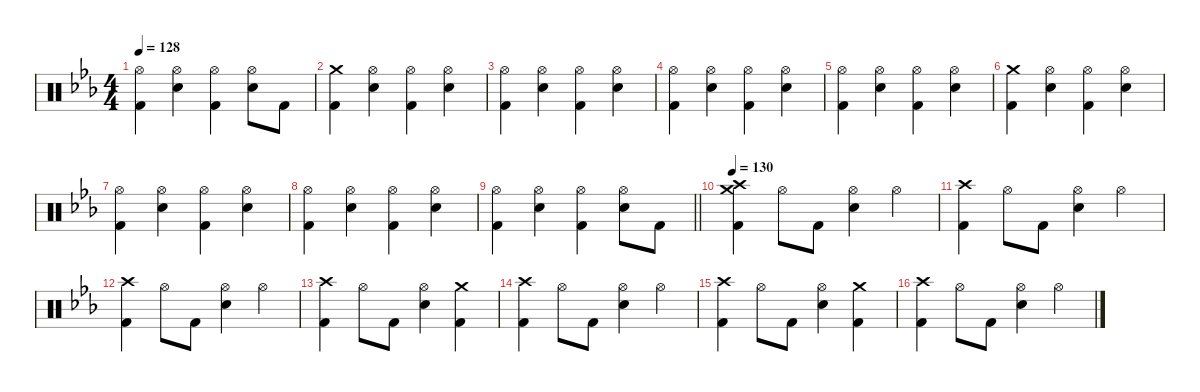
\defaultSystemsLayout 4
\hideDynamics
\bracketExtendMode nobrackets
\singleTrackTrackNamePolicy hidden
\multiTrackTrackNamePolicy hidden
\firstSystemTrackNameMode fullname
\otherSystemsTrackNameOrientation horizontal
\track ("Drums" "drm.") {instrument percussion}
\staff {score}
\articulation defaults
\ts (4 4)
\tempo 128
\clef neutral
\ks cminor
("Hi-Hat (open)"{acc forcenatural} "Kick (hit) 2"{acc forcenatural}).4{dy mp beam Down} ("Hi-Hat (open)"{acc forcenatural} "Snare (hit) 2"{acc forcenatural}).4{beam Down} ("Hi-Hat (open)"{acc forcenatural} "Kick (hit) 2"{acc forcenatural}).4{beam Down} ("Hi-Hat (open)"{acc forcenatural} "Snare (hit) 2"{acc forcenatural}).8{beam Down} "Kick (hit) 2"{acc forcenatural}.8{dy f beam Down} |
("Crash medium (hit)"{acc forcenatural} "Kick (hit) 2"{acc forcenatural}).4{beam Down} ("Hi-Hat (open)"{acc forcenatural} "Snare (hit) 2"{acc forcenatural}).4{dy mp beam Down} ("Hi-Hat (open)"{acc forcenatural} "Kick (hit) 2"{acc forcenatural}).4{beam Down} ("Hi-Hat (open)"{acc forcenatural} "Snare (hit) 2"{acc forcenatural}).4{beam Down} |
("Hi-Hat (open)"{acc forcenatural} "Kick (hit) 2"{acc forcenatural}).4{beam Down} ("Hi-Hat (open)"{acc forcenatural} "Snare (hit) 2"{acc forcenatural}).4{beam Down} ("Hi-Hat (open)"{acc forcenatural} "Kick (hit) 2"{acc forcenatural}).4{beam Down} ("Hi-Hat (open)"{acc forcenatural} "Snare (hit) 2"{acc forcenatural}).4{beam Down} |
("Hi-Hat (open)"{acc forcenatural} "Kick (hit) 2"{acc forcenatural}).4{beam Down} ("Hi-Hat (open)"{acc forcenatural} "Snare (hit) 2"{acc forcenatural}).4{beam Down} ("Hi-Hat (open)"{acc forcenatural} "Kick (hit) 2"{acc forcenatural}).4{beam Down} ("Hi-Hat (open)"{acc forcenatural} "Snare (hit) 2"{acc forcenatural}).4{beam Down} |
("Hi-Hat (open)"{acc forcenatural} "Kick (hit) 2"{acc forcenatural}).4{beam Down} ("Hi-Hat (open)"{acc forcenatural} "Snare (hit) 2"{acc forcenatural}).4{beam Down} ("Hi-Hat (open)"{acc forcenatural} "Kick (hit) 2"{acc forcenatural}).4{beam Down} ("Hi-Hat (open)"{acc forcenatural} "Snare (hit) 2"{acc forcenatural}).4{beam Down} |
("Crash medium (hit)"{acc forcenatural} "Kick (hit) 2"{acc forcenatural}).4{dy f beam Down} ("Hi-Hat (open)"{acc forcenatural} "Snare (hit) 2"{acc forcenatural}).4{dy mp beam Down} ("Hi-Hat (open)"{acc forcenatural} "Kick (hit) 2"{acc forcenatural}).4{beam Down} ("Hi-Hat (open)"{acc forcenatural} "Snare (hit) 2"{acc forcenatural}).4{beam Down} |
("Hi-Hat (open)"{acc forcenatural} "Kick (hit) 2"{acc forcenatural}).4{beam Down} ("Hi-Hat (open)"{acc forcenatural} "Snare (hit) 2"{acc forcenatural}).4{beam Down} ("Hi-Hat (open)"{acc forcenatural} "Kick (hit) 2"{acc forcenatural}).4{beam Down} ("Hi-Hat (open)"{acc forcenatural} "Snare (hit) 2"{acc forcenatural}).4{beam Down} |
("Hi-Hat (open)"{acc forcenatural} "Kick (hit) 2"{acc forcenatural}).4{beam Down} ("Hi-Hat (open)"{acc forcenatural} "Snare (hit) 2"{acc forcenatural}).4{beam Down} ("Hi-Hat (open)"{acc forcenatural} "Kick (hit) 2"{acc forcenatural}).4{beam Down} ("Hi-Hat (open)"{acc forcenatural} "Snare (hit) 2"{acc forcenatural}).4{beam Down} |
\barLineRight lightlight
("Hi-Hat (open)"{acc forcenatural} "Kick (hit) 2"{acc forcenatural}).4{beam Down} ("Hi-Hat (open)"{acc forcenatural} "Snare (hit) 2"{acc forcenatural}).4{beam Down} ("Hi-Hat (open)"{acc forcenatural} "Kick (hit) 2"{acc forcenatural}).4{beam Down} ("Hi-Hat (open)"{acc forcenatural} "Snare (hit) 2"{acc forcenatural}).8{beam Down} "Kick (hit) 2"{acc forcenatural}.8{dy f beam Down} |
\tempo 130
("Crash medium (hit)"{acc forcenatural} "Crash high (hit)"{acc forcenatural} "Kick (hit) 2"{acc forcenatural}).4{beam Down} "Hi-Hat (open)"{acc forcenatural}.8{dy mp beam Down} "Kick (hit) 2"{acc forcenatural}.8{dy f beam Down} ("Hi-Hat (open)"{acc forcenatural} "Snare (hit) 2"{acc forcenatural}).4{dy mp beam Down} "Hi-Hat (open)"{acc forcenatural}.4{beam Down} |
("Crash high (hit)"{acc forcenatural} "Kick (hit) 2"{acc forcenatural}).4{beam Down} "Hi-Hat (open)"{acc forcenatural}.8{beam Down} "Kick (hit) 2"{acc forcenatural}.8{dy f beam Down} ("Hi-Hat (open)"{acc forcenatural} "Snare (hit) 2"{acc forcenatural}).4{dy mp beam Down} "Hi-Hat (open)"{acc forcenatural}.4{beam Down} |
("Crash high (hit)"{acc forcenatural} "Kick (hit) 2"{acc forcenatural}).4{beam Down} "Hi-Hat (open)"{acc forcenatural}.8{beam Down} "Kick (hit) 2"{acc forcenatural}.8{dy f beam Down} ("Hi-Hat (open)"{acc forcenatural} "Snare (hit) 2"{acc forcenatural}).4{dy mp beam Down} "Hi-Hat (open)"{acc forcenatural}.4{beam Down} |
("Crash high (hit)"{acc forcenatural} "Kick (hit) 2"{acc forcenatural}).4{beam Down} "Hi-Hat (open)"{acc forcenatural}.8{beam Down} "Kick (hit) 2"{acc forcenatural}.8{dy f beam Down} ("Hi-Hat (open)"{acc forcenatural} "Snare (hit) 2"{acc forcenatural}).4{dy mp beam Down} ("Crash medium (hit)"{acc forcenatural} "Kick (hit) 2"{acc forcenatural}).4{beam Down} |
("Crash high (hit)"{acc forcenatural} "Kick (hit) 2"{acc forcenatural}).4{beam Down} "Hi-Hat (open)"{acc forcenatural}.8{beam Down} "Kick (hit) 2"{acc forcenatural}.8{dy f beam Down} ("Hi-Hat (open)"{acc forcenatural} "Snare (hit) 2"{acc forcenatural}).4{dy mp beam Down} "Hi-Hat (open)"{acc forcenatural}.4{beam Down} |
("Crash high (hit)"{acc forcenatural} "Kick (hit) 2"{acc forcenatural}).4{beam Down} "Hi-Hat (open)"{acc forcenatural}.8{beam Down} "Kick (hit) 2"{acc forcenatural}.8{dy f beam Down} ("Hi-Hat (open)"{acc forcenatural} "Snare (hit) 2"{acc forcenatural}).4{dy mp beam Down} ("Crash medium (hit)"{acc forcenatural} "Kick (hit) 2"{acc forcenatural}).4{beam Down} |
("Crash high (hit)"{acc forcenatural} "Kick (hit) 2"{acc forcenatural}).4{beam Down} "Hi-Hat (open)"{acc forcenatural}.8{beam Down} "Kick (hit) 2"{acc forcenatural}.8{dy f beam Down} ("Hi-Hat (open)"{acc forcenatural} "Snare (hit) 2"{acc forcenatural}).4{dy mp beam Down} "Hi-Hat (open)"{acc forcenatural}.4{beam Down}
